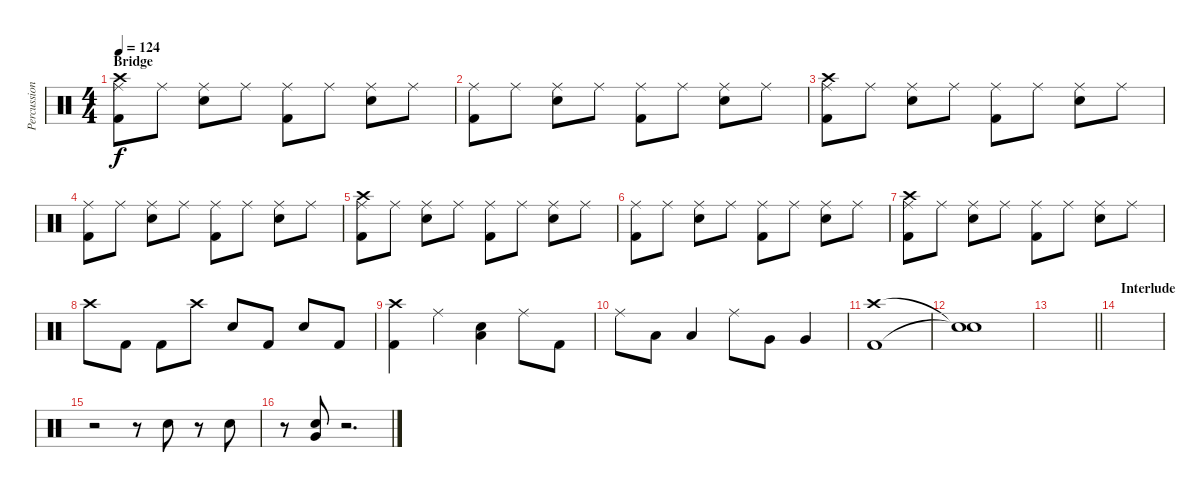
\track ("Percussion" "Percussion") {instrument percussion}
\staff {score}
\articulation defaults
\ts (4 4)
\section ("" "Bridge")
\tempo 124
\clef neutral
\ks c
("Ride (middle)" "Crash high (hit)" "Kick (hit) 2").8{dy f} "Ride (middle)".8 ("Ride (middle)" "Snare (hit) 2").8 "Ride (middle)".8 ("Ride (middle)" "Kick (hit) 2").8 "Ride (middle)".8 ("Ride (middle)" "Snare (hit) 2").8 "Ride (middle)".8 |
("Ride (middle)" "Kick (hit) 2").8 "Ride (middle)".8 ("Ride (middle)" "Snare (hit) 2").8 "Ride (middle)".8 ("Ride (middle)" "Kick (hit) 2").8 "Ride (middle)".8 ("Ride (middle)" "Snare (hit) 2").8 "Ride (middle)".8 |
("Ride (middle)" "Crash high (hit)" "Kick (hit) 2").8 "Ride (middle)".8 ("Ride (middle)" "Snare (hit) 2").8 "Ride (middle)".8 ("Ride (middle)" "Kick (hit) 2").8 "Ride (middle)".8 ("Ride (middle)" "Snare (hit) 2").8 "Ride (middle)".8 |
("Ride (middle)" "Kick (hit) 2").8 "Ride (middle)".8 ("Ride (middle)" "Snare (hit) 2").8 "Ride (middle)".8 ("Ride (middle)" "Kick (hit) 2").8 "Ride (middle)".8 ("Ride (middle)" "Snare (hit) 2").8 "Ride (middle)".8 |
("Ride (middle)" "Crash high (hit)" "Kick (hit) 2").8 "Ride (middle)".8 ("Ride (middle)" "Snare (hit) 2").8 "Ride (middle)".8 ("Ride (middle)" "Kick (hit) 2").8 "Ride (middle)".8 ("Ride (middle)" "Snare (hit) 2").8 "Ride (middle)".8 |
("Ride (middle)" "Kick (hit) 2").8 "Ride (middle)".8 ("Ride (middle)" "Snare (hit) 2").8 "Ride (middle)".8 ("Ride (middle)" "Kick (hit) 2").8 "Ride (middle)".8 ("Ride (middle)" "Snare (hit) 2").8 "Ride (middle)".8 |
("Ride (middle)" "Crash high (hit)" "Kick (hit) 2").8 "Ride (middle)".8 ("Ride (middle)" "Snare (hit) 2").8 "Ride (middle)".8 ("Ride (middle)" "Kick (hit) 2").8 "Ride (middle)".8 ("Ride (middle)" "Snare (hit) 2").8 "Ride (middle)".8 |
"Crash high (hit)".8 "Kick (hit) 2".8 "Kick (hit) 2".8 "Crash high (hit)".8 "Snare (hit) 2".8 "Kick (hit) 2".8 "Snare (hit) 2".8 "Kick (hit) 2".8 |
("Crash high (hit)" "Kick (hit) 2").4 "Ride (middle)".4 ("Low Tom (hit)" "Snare (hit) 2").4 "Ride (middle)".8 "Kick (hit) 2".8 |
"Ride (middle)".8 "Low Tom (hit)".8 "Low Tom (hit)".4 "Ride (middle)".8 "Very Low Tom (hit)".8 "Very Low Tom (hit)".4 |
("Crash high (hit)" "Kick (hit) 2").1 |
("Snare (hit)"{t} "Snare (hit)"{t}).1 |
\barLineRight lightlight
|
\section ("" "Interlude")
|
r.2 r.8 "Snare (hit) 2".8 r.8 "Snare (hit) 2".8 |
r.8 ("Very Low Tom (hit)" "Snare (hit) 2").8 r.2{d}
